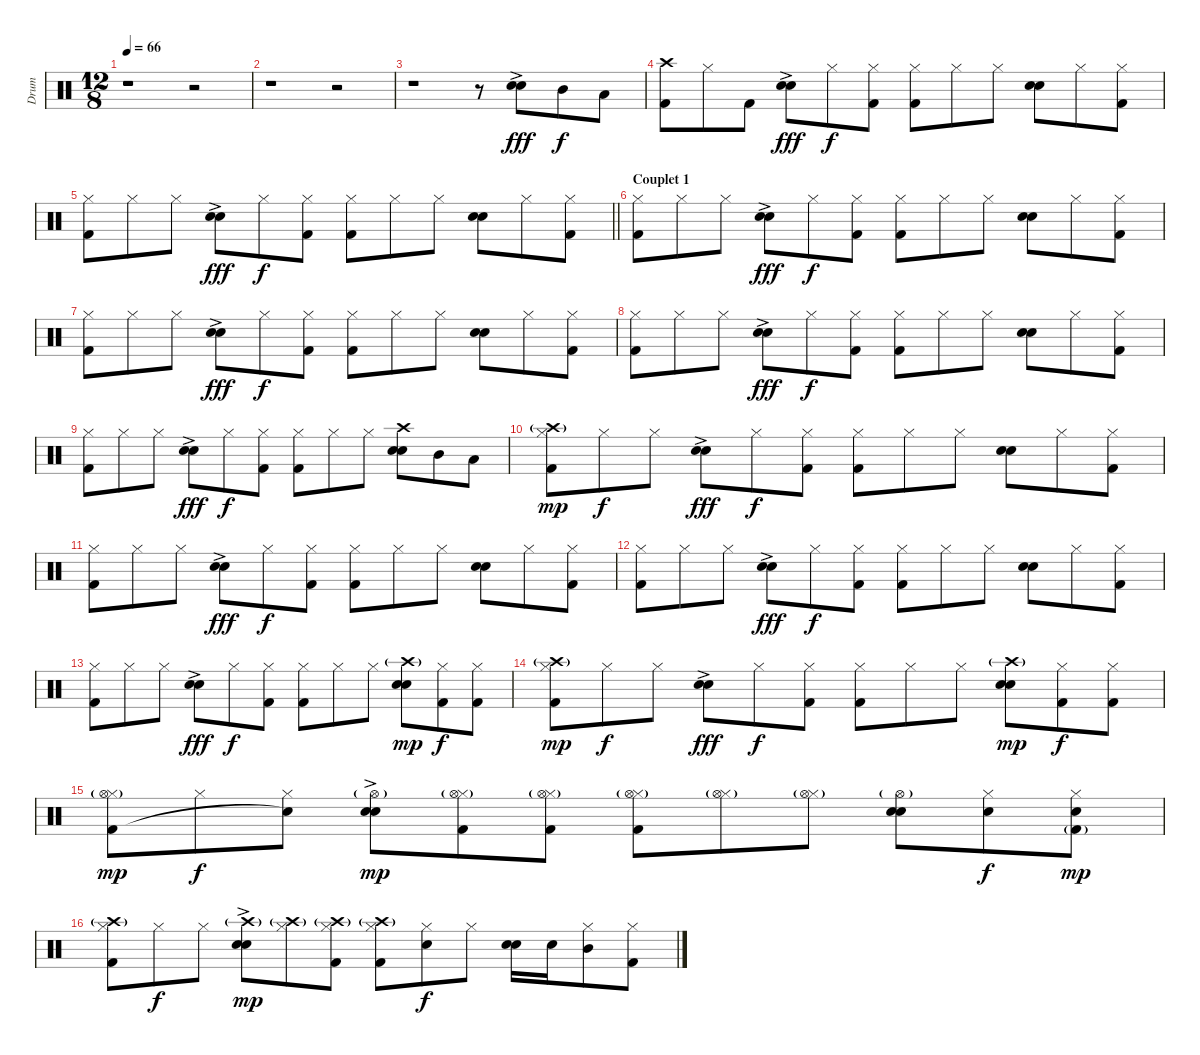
\track ("Drum" "Drum") {instrument percussion}
\staff {score}
\articulation defaults
\ts (12 8)
\tempo 66
\clef neutral
\ks c
r.1{dy fff} r.2 |
r.1 r.2 |
r.1 r.8 ("Electric Snare (hit)"{ac} "Hand Clap (hit)").8 "Mid Tom (hit)".8{dy f} "Low Tom (hit)".8 |
("Crash high (hit)" "Kick (hit) 2").8 "Hi-Hat (closed)".8 "Kick (hit) 2".8 ("Electric Snare (hit)"{ac} "Hand Clap (hit)").8{dy fff} "Hi-Hat (closed)".8{dy f} ("Hi-Hat (closed)" "Kick (hit) 2").8 ("Hi-Hat (closed)" "Kick (hit) 2").8 "Hi-Hat (closed)".8 "Hi-Hat (closed)".8 ("Electric Snare (hit)" "Hand Clap (hit)").8 "Hi-Hat (closed)".8 ("Hi-Hat (closed)" "Kick (hit) 2").8 |
\barLineRight lightlight
("Hi-Hat (closed)" "Kick (hit) 2").8 "Hi-Hat (closed)".8 "Hi-Hat (closed)".8 ("Electric Snare (hit)"{ac} "Hand Clap (hit)").8{dy fff} "Hi-Hat (closed)".8{dy f} ("Hi-Hat (closed)" "Kick (hit) 2").8 ("Hi-Hat (closed)" "Kick (hit) 2").8 "Hi-Hat (closed)".8 "Hi-Hat (closed)".8 ("Electric Snare (hit)" "Hand Clap (hit)").8 "Hi-Hat (closed)".8 ("Hi-Hat (closed)" "Kick (hit) 2").8 |
\section ("" "Couplet 1")
("Hi-Hat (closed)" "Kick (hit) 2").8 "Hi-Hat (closed)".8 "Hi-Hat (closed)".8 ("Electric Snare (hit)"{ac} "Hand Clap (hit)").8{dy fff} "Hi-Hat (closed)".8{dy f} ("Hi-Hat (closed)" "Kick (hit) 2").8 ("Hi-Hat (closed)" "Kick (hit) 2").8 "Hi-Hat (closed)".8 "Hi-Hat (closed)".8 ("Electric Snare (hit)" "Hand Clap (hit)").8 "Hi-Hat (closed)".8 ("Hi-Hat (closed)" "Kick (hit) 2").8 |
("Hi-Hat (closed)" "Kick (hit) 2").8 "Hi-Hat (closed)".8 "Hi-Hat (closed)".8 ("Electric Snare (hit)"{ac} "Hand Clap (hit)").8{dy fff} "Hi-Hat (closed)".8{dy f} ("Hi-Hat (closed)" "Kick (hit) 2").8 ("Hi-Hat (closed)" "Kick (hit) 2").8 "Hi-Hat (closed)".8 "Hi-Hat (closed)".8 ("Electric Snare (hit)" "Hand Clap (hit)").8 "Hi-Hat (closed)".8 ("Hi-Hat (closed)" "Kick (hit) 2").8 |
("Hi-Hat (closed)" "Kick (hit) 2").8 "Hi-Hat (closed)".8 "Hi-Hat (closed)".8 ("Electric Snare (hit)"{ac} "Hand Clap (hit)").8{dy fff} "Hi-Hat (closed)".8{dy f} ("Hi-Hat (closed)" "Kick (hit) 2").8 ("Hi-Hat (closed)" "Kick (hit) 2").8 "Hi-Hat (closed)".8 "Hi-Hat (closed)".8 ("Electric Snare (hit)" "Hand Clap (hit)").8 "Hi-Hat (closed)".8 ("Hi-Hat (closed)" "Kick (hit) 2").8 |
("Hi-Hat (closed)" "Kick (hit) 2").8 "Hi-Hat (closed)".8 "Hi-Hat (closed)".8 ("Electric Snare (hit)"{ac} "Hand Clap (hit)").8{dy fff} "Hi-Hat (closed)".8{dy f} ("Hi-Hat (closed)" "Kick (hit) 2").8 ("Hi-Hat (closed)" "Kick (hit) 2").8 "Hi-Hat (closed)".8 "Hi-Hat (closed)".8 ("Crash high (hit)" "Electric Snare (hit)" "Hand Clap (hit)").8 "Mid Tom (hit)".8 "Low Tom (hit)".8 |
("Hi-Hat (closed)" "Kick (hit) 2" "Crash high (hit)"{g}).8{dy mp} "Hi-Hat (closed)".8{dy f} "Hi-Hat (closed)".8 ("Electric Snare (hit)"{ac} "Hand Clap (hit)").8{dy fff} "Hi-Hat (closed)".8{dy f} ("Hi-Hat (closed)" "Kick (hit) 2").8 ("Hi-Hat (closed)" "Kick (hit) 2").8 "Hi-Hat (closed)".8 "Hi-Hat (closed)".8 ("Electric Snare (hit)" "Hand Clap (hit)").8 "Hi-Hat (closed)".8 ("Hi-Hat (closed)" "Kick (hit) 2").8 |
("Hi-Hat (closed)" "Kick (hit) 2").8 "Hi-Hat (closed)".8 "Hi-Hat (closed)".8 ("Electric Snare (hit)"{ac} "Hand Clap (hit)").8{dy fff} "Hi-Hat (closed)".8{dy f} ("Hi-Hat (closed)" "Kick (hit) 2").8 ("Hi-Hat (closed)" "Kick (hit) 2").8 "Hi-Hat (closed)".8 "Hi-Hat (closed)".8 ("Electric Snare (hit)" "Hand Clap (hit)").8 "Hi-Hat (closed)".8 ("Hi-Hat (closed)" "Kick (hit) 2").8 |
("Hi-Hat (closed)" "Kick (hit) 2").8 "Hi-Hat (closed)".8 "Hi-Hat (closed)".8 ("Electric Snare (hit)"{ac} "Hand Clap (hit)").8{dy fff} "Hi-Hat (closed)".8{dy f} ("Hi-Hat (closed)" "Kick (hit) 2").8 ("Hi-Hat (closed)" "Kick (hit) 2").8 "Hi-Hat (closed)".8 "Hi-Hat (closed)".8 ("Electric Snare (hit)" "Hand Clap (hit)").8 "Hi-Hat (closed)".8 ("Hi-Hat (closed)" "Kick (hit) 2").8 |
("Hi-Hat (closed)" "Kick (hit) 2").8 "Hi-Hat (closed)".8 "Hi-Hat (closed)".8 ("Electric Snare (hit)"{ac} "Hand Clap (hit)").8{dy fff} "Hi-Hat (closed)".8{dy f} ("Hi-Hat (closed)" "Kick (hit) 2").8 ("Hi-Hat (closed)" "Kick (hit) 2").8 "Hi-Hat (closed)".8 "Hi-Hat (closed)".8 ("Crash high (hit)"{g} "Electric Snare (hit)" "Hand Clap (hit)").8{dy mp} ("Hi-Hat (closed)" "Kick (hit) 2").8{dy f} ("Hi-Hat (closed)" "Kick (hit) 2").8 |
("Hi-Hat (closed)" "Kick (hit) 2" "Crash high (hit)"{g}).8{dy mp} "Hi-Hat (closed)".8{dy f} "Hi-Hat (closed)".8 ("Electric Snare (hit)"{ac} "Hand Clap (hit)").8{dy fff} "Hi-Hat (closed)".8{dy f} ("Hi-Hat (closed)" "Kick (hit) 2").8 ("Hi-Hat (closed)" "Kick (hit) 2").8 "Hi-Hat (closed)".8 "Hi-Hat (closed)".8 ("Electric Snare (hit)" "Hand Clap (hit)" "Crash high (hit)"{g}).8{dy mp} ("Hi-Hat (closed)" "Kick (hit) 2").8{dy f} ("Hi-Hat (closed)" "Kick (hit) 2").8 |
("Hi-Hat (closed)" "Kick (hit) 2" "Hi-Hat (open)"{g}).8{dy mp} "Hi-Hat (closed)".8{dy f} ("Hi-Hat (closed)" "Snare (hit)"{t}).8 ("Electric Snare (hit)"{ac} "Hand Clap (hit)" "Hi-Hat (open)"{g}).8{dy mp} ("Hi-Hat (closed)" "Kick (hit) 2" "Hi-Hat (open)"{g}).8 ("Hi-Hat (closed)" "Kick (hit) 2" "Hi-Hat (open)"{g}).8 ("Hi-Hat (closed)" "Kick (hit) 2" "Hi-Hat (open)"{g}).8 ("Hi-Hat (closed)" "Hi-Hat (open)"{g}).8 ("Hi-Hat (closed)" "Hi-Hat (open)"{g}).8 ("Electric Snare (hit)" "Hand Clap (hit)" "Hi-Hat (open)"{g}).8 ("Hi-Hat (closed)" "Electric Snare (hit)").8{dy f} ("Hi-Hat (closed)" "Electric Snare (hit)" "Kick (hit) 2"{g}).8{dy mp} |
("Hi-Hat (closed)" "Kick (hit) 2" "Crash high (hit)"{g}).8 "Hi-Hat (closed)".8{dy f} "Hi-Hat (closed)".8 ("Electric Snare (hit)"{ac} "Hand Clap (hit)" "Crash high (hit)"{g}).8{dy mp} ("Hi-Hat (closed)" "Crash high (hit)"{g}).8 ("Hi-Hat (closed)" "Kick (hit) 2" "Crash high (hit)"{g}).8 ("Hi-Hat (closed)" "Kick (hit) 2" "Crash high (hit)"{g}).8 ("Hi-Hat (closed)" "Electric Snare (hit)").8{dy f} "Hi-Hat (closed)".8 ("Electric Snare (hit)" "Hand Clap (hit)").16 "Electric Snare (hit)".16 ("Hi-Hat (closed)" "Mid Tom (hit)").8 ("Hi-Hat (closed)" "Kick (hit) 2").8
